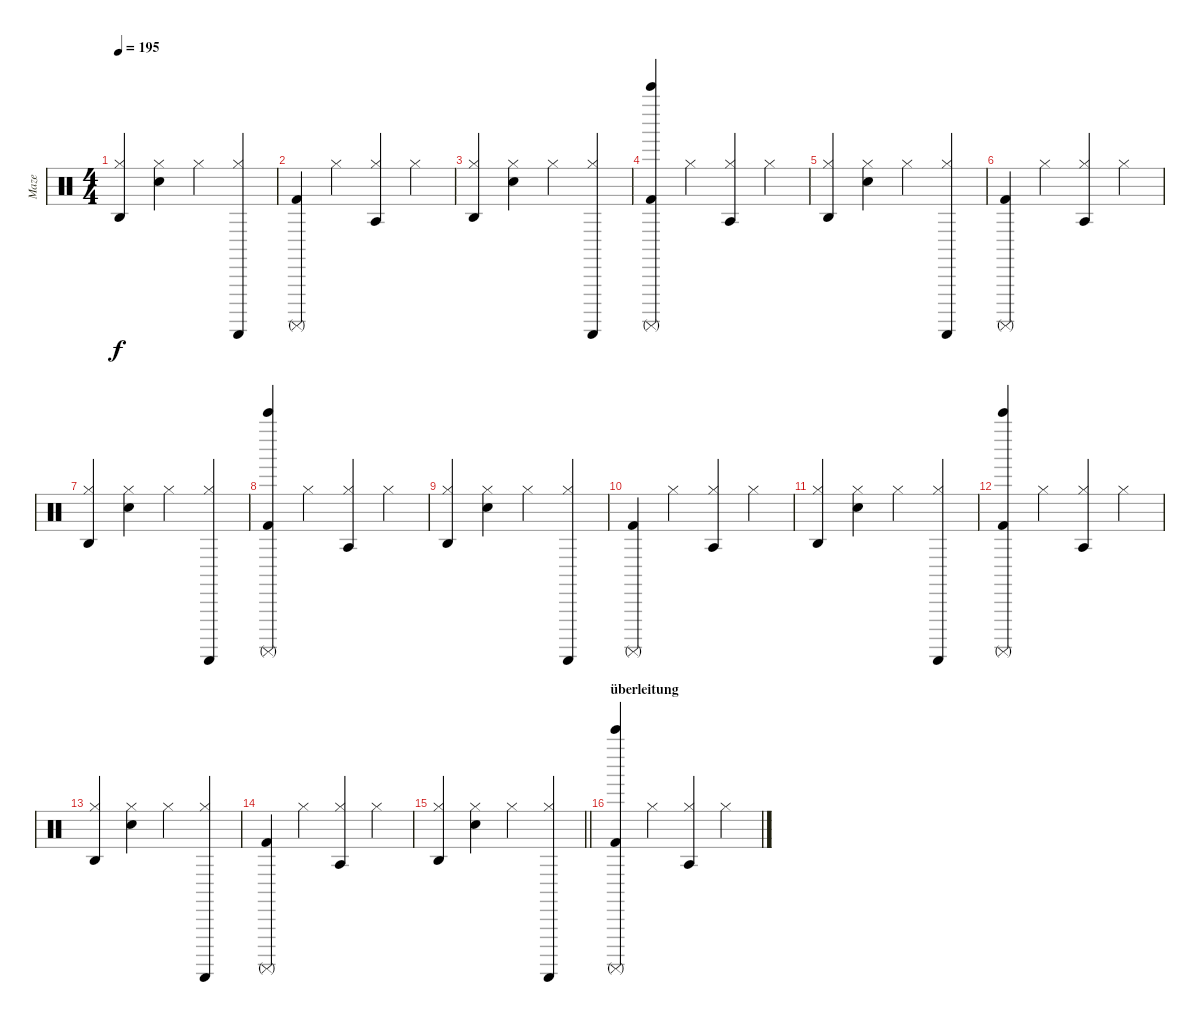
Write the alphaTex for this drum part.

\track ("Maze" "Maze") {instrument percussion}
\staff
\articulation defaults
\ts (4 4)
\tempo 195
\clef neutral
\ks c
("Agogo high (hit)" "Hi-Hat (closed)").4{dy f} ("Metronome (bell)" "Hi-Hat (closed)").4 "Hi-Hat (closed)".4 ("Guiro (scrap-return)" "Hi-Hat (closed)").4 |
("Surdo (mute)" "Kick (hit) 2").4 "Hi-Hat (closed)".4 ("Agogo tow (hit)" "Hi-Hat (closed)").4 "Hi-Hat (closed)".4 |
("Agogo high (hit)" "Hi-Hat (closed)").4 ("Metronome (bell)" "Hi-Hat (closed)").4 "Hi-Hat (closed)".4 ("Guiro (scrap-return)" "Hi-Hat (closed)").4 |
("Bell Tree (hit)" "Surdo (mute)" "Kick (hit) 2").4 "Hi-Hat (closed)".4 ("Agogo tow (hit)" "Hi-Hat (closed)").4 "Hi-Hat (closed)".4 |
("Agogo high (hit)" "Hi-Hat (closed)").4 ("Metronome (bell)" "Hi-Hat (closed)").4 "Hi-Hat (closed)".4 ("Guiro (scrap-return)" "Hi-Hat (closed)").4 |
("Surdo (mute)" "Kick (hit) 2").4 "Hi-Hat (closed)".4 ("Agogo tow (hit)" "Hi-Hat (closed)").4 "Hi-Hat (closed)".4 |
("Agogo high (hit)" "Hi-Hat (closed)").4 ("Metronome (bell)" "Hi-Hat (closed)").4 "Hi-Hat (closed)".4 ("Guiro (scrap-return)" "Hi-Hat (closed)").4 |
("Bell Tree (hit)" "Surdo (mute)" "Kick (hit) 2").4 "Hi-Hat (closed)".4 ("Agogo tow (hit)" "Hi-Hat (closed)").4 "Hi-Hat (closed)".4 |
("Agogo high (hit)" "Hi-Hat (closed)").4 ("Metronome (bell)" "Hi-Hat (closed)").4 "Hi-Hat (closed)".4 ("Guiro (scrap-return)" "Hi-Hat (closed)").4 |
("Surdo (mute)" "Kick (hit) 2").4 "Hi-Hat (closed)".4 ("Agogo tow (hit)" "Hi-Hat (closed)").4 "Hi-Hat (closed)".4 |
("Agogo high (hit)" "Hi-Hat (closed)").4 ("Metronome (bell)" "Hi-Hat (closed)").4 "Hi-Hat (closed)".4 ("Guiro (scrap-return)" "Hi-Hat (closed)").4 |
("Bell Tree (hit)" "Surdo (mute)" "Kick (hit) 2").4 "Hi-Hat (closed)".4 ("Agogo tow (hit)" "Hi-Hat (closed)").4 "Hi-Hat (closed)".4 |
("Agogo high (hit)" "Hi-Hat (closed)").4 ("Metronome (bell)" "Hi-Hat (closed)").4 "Hi-Hat (closed)".4 ("Guiro (scrap-return)" "Hi-Hat (closed)").4 |
("Surdo (mute)" "Kick (hit) 2").4 "Hi-Hat (closed)".4 ("Agogo tow (hit)" "Hi-Hat (closed)").4 "Hi-Hat (closed)".4 |
\barLineRight lightlight
("Agogo high (hit)" "Hi-Hat (closed)").4 ("Metronome (bell)" "Hi-Hat (closed)").4 "Hi-Hat (closed)".4 ("Guiro (scrap-return)" "Hi-Hat (closed)").4 |
\section ("" "überleitung")
("Bell Tree (hit)" "Surdo (mute)" "Kick (hit) 2").4 "Hi-Hat (closed)".4 ("Agogo tow (hit)" "Hi-Hat (closed)").4 "Hi-Hat (closed)".4
